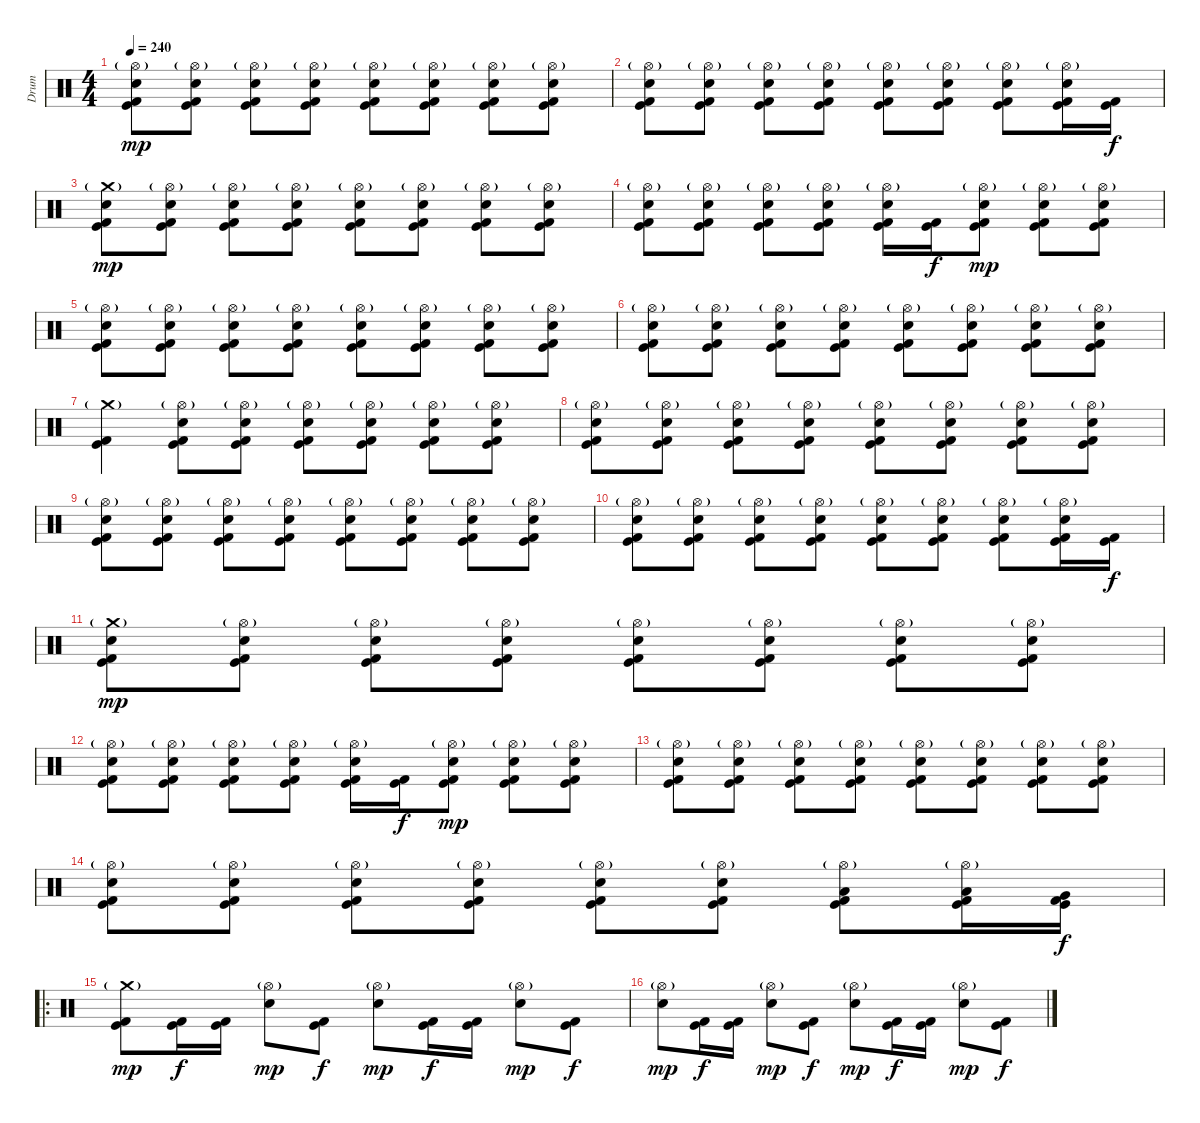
\track ("Drum" "Drum") {instrument percussion}
\staff {score}
\articulation defaults
\ts (4 4)
\tempo 240
\clef neutral
\ks c
("Hi-Hat (open)"{g} "Electric Snare (hit)" "Kick (hit)" "Kick (hit) 2").8{dy mp} ("Hi-Hat (open)"{g} "Electric Snare (hit)" "Kick (hit)" "Kick (hit) 2").8 ("Hi-Hat (open)"{g} "Electric Snare (hit)" "Kick (hit)" "Kick (hit) 2").8 ("Hi-Hat (open)"{g} "Electric Snare (hit)" "Kick (hit)" "Kick (hit) 2").8 ("Hi-Hat (open)"{g} "Electric Snare (hit)" "Kick (hit)" "Kick (hit) 2").8 ("Hi-Hat (open)"{g} "Electric Snare (hit)" "Kick (hit)" "Kick (hit) 2").8 ("Hi-Hat (open)"{g} "Electric Snare (hit)" "Kick (hit)" "Kick (hit) 2").8 ("Hi-Hat (open)"{g} "Electric Snare (hit)" "Kick (hit)" "Kick (hit) 2").8 |
("Hi-Hat (open)"{g} "Electric Snare (hit)" "Kick (hit)" "Kick (hit) 2").8 ("Hi-Hat (open)"{g} "Electric Snare (hit)" "Kick (hit)" "Kick (hit) 2").8 ("Hi-Hat (open)"{g} "Electric Snare (hit)" "Kick (hit)" "Kick (hit) 2").8 ("Hi-Hat (open)"{g} "Electric Snare (hit)" "Kick (hit)" "Kick (hit) 2").8 ("Hi-Hat (open)"{g} "Electric Snare (hit)" "Kick (hit)" "Kick (hit) 2").8 ("Hi-Hat (open)"{g} "Electric Snare (hit)" "Kick (hit)" "Kick (hit) 2").8 ("Hi-Hat (open)"{g} "Electric Snare (hit)" "Kick (hit)" "Kick (hit) 2").8 ("Hi-Hat (open)"{g} "Electric Snare (hit)" "Kick (hit)" "Kick (hit) 2").16 ("Kick (hit)" "Kick (hit) 2").16{dy f} |
("Crash medium (hit)"{g} "Electric Snare (hit)" "Kick (hit)" "Kick (hit) 2").8{dy mp} ("Hi-Hat (open)"{g} "Electric Snare (hit)" "Kick (hit)" "Kick (hit) 2").8 ("Hi-Hat (open)"{g} "Electric Snare (hit)" "Kick (hit)" "Kick (hit) 2").8 ("Hi-Hat (open)"{g} "Electric Snare (hit)" "Kick (hit)" "Kick (hit) 2").8 ("Hi-Hat (open)"{g} "Electric Snare (hit)" "Kick (hit)" "Kick (hit) 2").8 ("Hi-Hat (open)"{g} "Electric Snare (hit)" "Kick (hit)" "Kick (hit) 2").8 ("Hi-Hat (open)"{g} "Electric Snare (hit)" "Kick (hit)" "Kick (hit) 2").8 ("Hi-Hat (open)"{g} "Electric Snare (hit)" "Kick (hit)" "Kick (hit) 2").8 |
("Hi-Hat (open)"{g} "Electric Snare (hit)" "Kick (hit)" "Kick (hit) 2").8 ("Hi-Hat (open)"{g} "Electric Snare (hit)" "Kick (hit)" "Kick (hit) 2").8 ("Hi-Hat (open)"{g} "Electric Snare (hit)" "Kick (hit)" "Kick (hit) 2").8 ("Hi-Hat (open)"{g} "Electric Snare (hit)" "Kick (hit)" "Kick (hit) 2").8 ("Hi-Hat (open)"{g} "Electric Snare (hit)" "Kick (hit)" "Kick (hit) 2").16 ("Kick (hit)" "Kick (hit) 2").16{dy f} ("Hi-Hat (open)"{g} "Electric Snare (hit)" "Kick (hit)" "Kick (hit) 2").8{dy mp} ("Hi-Hat (open)"{g} "Electric Snare (hit)" "Kick (hit)" "Kick (hit) 2").8 ("Hi-Hat (open)"{g} "Electric Snare (hit)" "Kick (hit)" "Kick (hit) 2").8 |
("Hi-Hat (open)"{g} "Electric Snare (hit)" "Kick (hit)" "Kick (hit) 2").8 ("Hi-Hat (open)"{g} "Electric Snare (hit)" "Kick (hit)" "Kick (hit) 2").8 ("Hi-Hat (open)"{g} "Electric Snare (hit)" "Kick (hit)" "Kick (hit) 2").8 ("Hi-Hat (open)"{g} "Electric Snare (hit)" "Kick (hit)" "Kick (hit) 2").8 ("Hi-Hat (open)"{g} "Electric Snare (hit)" "Kick (hit)" "Kick (hit) 2").8 ("Hi-Hat (open)"{g} "Electric Snare (hit)" "Kick (hit)" "Kick (hit) 2").8 ("Hi-Hat (open)"{g} "Electric Snare (hit)" "Kick (hit)" "Kick (hit) 2").8 ("Hi-Hat (open)"{g} "Electric Snare (hit)" "Kick (hit)" "Kick (hit) 2").8 |
("Hi-Hat (open)"{g} "Electric Snare (hit)" "Kick (hit)" "Kick (hit) 2").8 ("Hi-Hat (open)"{g} "Electric Snare (hit)" "Kick (hit)" "Kick (hit) 2").8 ("Hi-Hat (open)"{g} "Electric Snare (hit)" "Kick (hit)" "Kick (hit) 2").8 ("Hi-Hat (open)"{g} "Electric Snare (hit)" "Kick (hit)" "Kick (hit) 2").8 ("Hi-Hat (open)"{g} "Electric Snare (hit)" "Kick (hit)" "Kick (hit) 2").8 ("Hi-Hat (open)"{g} "Electric Snare (hit)" "Kick (hit)" "Kick (hit) 2").8 ("Hi-Hat (open)"{g} "Electric Snare (hit)" "Kick (hit)" "Kick (hit) 2").8 ("Hi-Hat (open)"{g} "Electric Snare (hit)" "Kick (hit)" "Kick (hit) 2").8 |
("Crash medium (hit)"{g} "Kick (hit)" "Kick (hit) 2").4 ("Hi-Hat (open)"{g} "Electric Snare (hit)" "Kick (hit)" "Kick (hit) 2").8 ("Hi-Hat (open)"{g} "Electric Snare (hit)" "Kick (hit)" "Kick (hit) 2").8 ("Hi-Hat (open)"{g} "Electric Snare (hit)" "Kick (hit)" "Kick (hit) 2").8 ("Hi-Hat (open)"{g} "Electric Snare (hit)" "Kick (hit)" "Kick (hit) 2").8 ("Hi-Hat (open)"{g} "Electric Snare (hit)" "Kick (hit)" "Kick (hit) 2").8 ("Hi-Hat (open)"{g} "Electric Snare (hit)" "Kick (hit)" "Kick (hit) 2").8 |
("Hi-Hat (open)"{g} "Electric Snare (hit)" "Kick (hit)" "Kick (hit) 2").8 ("Hi-Hat (open)"{g} "Electric Snare (hit)" "Kick (hit)" "Kick (hit) 2").8 ("Hi-Hat (open)"{g} "Electric Snare (hit)" "Kick (hit)" "Kick (hit) 2").8 ("Hi-Hat (open)"{g} "Electric Snare (hit)" "Kick (hit)" "Kick (hit) 2").8 ("Hi-Hat (open)"{g} "Electric Snare (hit)" "Kick (hit)" "Kick (hit) 2").8 ("Hi-Hat (open)"{g} "Electric Snare (hit)" "Kick (hit)" "Kick (hit) 2").8 ("Hi-Hat (open)"{g} "Electric Snare (hit)" "Kick (hit)" "Kick (hit) 2").8 ("Hi-Hat (open)"{g} "Electric Snare (hit)" "Kick (hit)" "Kick (hit) 2").8 |
("Hi-Hat (open)"{g} "Electric Snare (hit)" "Kick (hit)" "Kick (hit) 2").8 ("Hi-Hat (open)"{g} "Electric Snare (hit)" "Kick (hit)" "Kick (hit) 2").8 ("Hi-Hat (open)"{g} "Electric Snare (hit)" "Kick (hit)" "Kick (hit) 2").8 ("Hi-Hat (open)"{g} "Electric Snare (hit)" "Kick (hit)" "Kick (hit) 2").8 ("Hi-Hat (open)"{g} "Electric Snare (hit)" "Kick (hit)" "Kick (hit) 2").8 ("Hi-Hat (open)"{g} "Electric Snare (hit)" "Kick (hit)" "Kick (hit) 2").8 ("Hi-Hat (open)"{g} "Electric Snare (hit)" "Kick (hit)" "Kick (hit) 2").8 ("Hi-Hat (open)"{g} "Electric Snare (hit)" "Kick (hit)" "Kick (hit) 2").8 |
("Hi-Hat (open)"{g} "Electric Snare (hit)" "Kick (hit)" "Kick (hit) 2").8 ("Hi-Hat (open)"{g} "Electric Snare (hit)" "Kick (hit)" "Kick (hit) 2").8 ("Hi-Hat (open)"{g} "Electric Snare (hit)" "Kick (hit)" "Kick (hit) 2").8 ("Hi-Hat (open)"{g} "Electric Snare (hit)" "Kick (hit)" "Kick (hit) 2").8 ("Hi-Hat (open)"{g} "Electric Snare (hit)" "Kick (hit)" "Kick (hit) 2").8 ("Hi-Hat (open)"{g} "Electric Snare (hit)" "Kick (hit)" "Kick (hit) 2").8 ("Hi-Hat (open)"{g} "Electric Snare (hit)" "Kick (hit)" "Kick (hit) 2").8 ("Hi-Hat (open)"{g} "Electric Snare (hit)" "Kick (hit)" "Kick (hit) 2").16 ("Kick (hit)" "Kick (hit) 2").16{dy f} |
("Crash medium (hit)"{g} "Electric Snare (hit)" "Kick (hit)" "Kick (hit) 2").8{dy mp} ("Hi-Hat (open)"{g} "Electric Snare (hit)" "Kick (hit)" "Kick (hit) 2").8 ("Hi-Hat (open)"{g} "Electric Snare (hit)" "Kick (hit)" "Kick (hit) 2").8 ("Hi-Hat (open)"{g} "Electric Snare (hit)" "Kick (hit)" "Kick (hit) 2").8 ("Hi-Hat (open)"{g} "Electric Snare (hit)" "Kick (hit)" "Kick (hit) 2").8 ("Hi-Hat (open)"{g} "Electric Snare (hit)" "Kick (hit)" "Kick (hit) 2").8 ("Hi-Hat (open)"{g} "Electric Snare (hit)" "Kick (hit)" "Kick (hit) 2").8 ("Hi-Hat (open)"{g} "Electric Snare (hit)" "Kick (hit)" "Kick (hit) 2").8 |
("Hi-Hat (open)"{g} "Electric Snare (hit)" "Kick (hit)" "Kick (hit) 2").8 ("Hi-Hat (open)"{g} "Electric Snare (hit)" "Kick (hit)" "Kick (hit) 2").8 ("Hi-Hat (open)"{g} "Electric Snare (hit)" "Kick (hit)" "Kick (hit) 2").8 ("Hi-Hat (open)"{g} "Electric Snare (hit)" "Kick (hit)" "Kick (hit) 2").8 ("Hi-Hat (open)"{g} "Electric Snare (hit)" "Kick (hit)" "Kick (hit) 2").16 ("Kick (hit)" "Kick (hit) 2").16{dy f} ("Hi-Hat (open)"{g} "Electric Snare (hit)" "Kick (hit)" "Kick (hit) 2").8{dy mp} ("Hi-Hat (open)"{g} "Electric Snare (hit)" "Kick (hit)" "Kick (hit) 2").8 ("Hi-Hat (open)"{g} "Electric Snare (hit)" "Kick (hit)" "Kick (hit) 2").8 |
("Hi-Hat (open)"{g} "Electric Snare (hit)" "Kick (hit)" "Kick (hit) 2").8 ("Hi-Hat (open)"{g} "Electric Snare (hit)" "Kick (hit)" "Kick (hit) 2").8 ("Hi-Hat (open)"{g} "Electric Snare (hit)" "Kick (hit)" "Kick (hit) 2").8 ("Hi-Hat (open)"{g} "Electric Snare (hit)" "Kick (hit)" "Kick (hit) 2").8 ("Hi-Hat (open)"{g} "Electric Snare (hit)" "Kick (hit)" "Kick (hit) 2").8 ("Hi-Hat (open)"{g} "Electric Snare (hit)" "Kick (hit)" "Kick (hit) 2").8 ("Hi-Hat (open)"{g} "Electric Snare (hit)" "Kick (hit)" "Kick (hit) 2").8 ("Hi-Hat (open)"{g} "Electric Snare (hit)" "Kick (hit)" "Kick (hit) 2").8 |
("Hi-Hat (open)"{g} "Electric Snare (hit)" "Kick (hit)" "Kick (hit) 2").8 ("Hi-Hat (open)"{g} "Electric Snare (hit)" "Kick (hit)" "Kick (hit) 2").8 ("Hi-Hat (open)"{g} "Electric Snare (hit)" "Kick (hit)" "Kick (hit) 2").8 ("Hi-Hat (open)"{g} "Electric Snare (hit)" "Kick (hit)" "Kick (hit) 2").8 ("Hi-Hat (open)"{g} "Electric Snare (hit)" "Kick (hit)" "Kick (hit) 2").8 ("Hi-Hat (open)"{g} "Electric Snare (hit)" "Kick (hit)" "Kick (hit) 2").8 ("Hi-Hat (open)"{g} "Low Tom (hit)" "Kick (hit)" "Kick (hit) 2").8 ("Hi-Hat (open)"{g} "Low Tom (hit)" "Kick (hit)" "Kick (hit) 2").16 ("Very Low Tom (hit)" "Kick (hit)" "Kick (hit) 2").16{dy f} |
\ro
("Crash medium (hit)"{g} "Kick (hit)" "Kick (hit) 2").8{dy mp} ("Kick (hit)" "Kick (hit) 2").16{dy f} ("Kick (hit)" "Kick (hit) 2").16 ("Hi-Hat (open)"{g} "Electric Snare (hit)").8{dy mp} ("Kick (hit)" "Kick (hit) 2").8{dy f} ("Hi-Hat (open)"{g} "Electric Snare (hit)").8{dy mp} ("Kick (hit)" "Kick (hit) 2").16{dy f} ("Kick (hit)" "Kick (hit) 2").16 ("Hi-Hat (open)"{g} "Electric Snare (hit)").8{dy mp} ("Kick (hit)" "Kick (hit) 2").8{dy f} |
("Hi-Hat (open)"{g} "Electric Snare (hit)").8{dy mp} ("Kick (hit)" "Kick (hit) 2").16{dy f} ("Kick (hit)" "Kick (hit) 2").16 ("Hi-Hat (open)"{g} "Electric Snare (hit)").8{dy mp} ("Kick (hit)" "Kick (hit) 2").8{dy f} ("Hi-Hat (open)"{g} "Electric Snare (hit)").8{dy mp} ("Kick (hit)" "Kick (hit) 2").16{dy f} ("Kick (hit)" "Kick (hit) 2").16 ("Hi-Hat (open)"{g} "Electric Snare (hit)").8{dy mp} ("Kick (hit)" "Kick (hit) 2").8{dy f}
